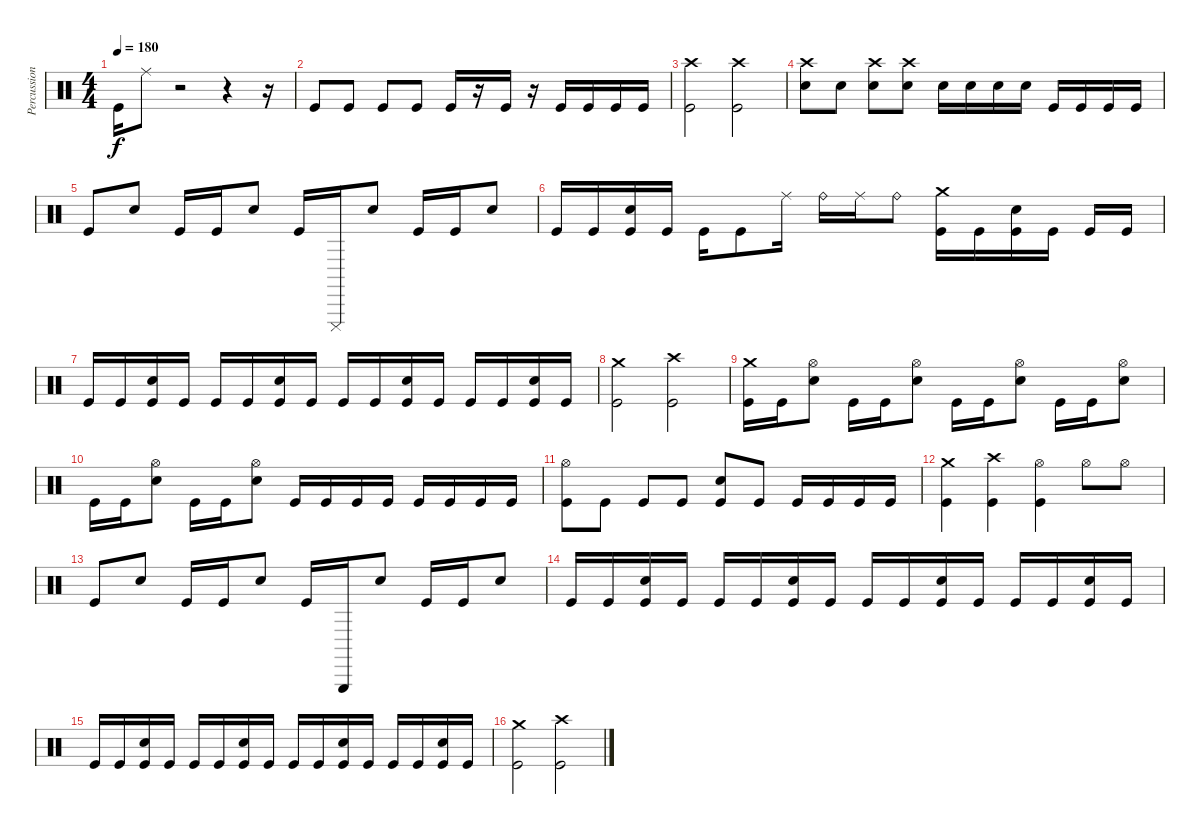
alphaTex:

\track ("Percussions" "Percussion") {instrument percussion}
\staff {score}
\articulation defaults
\ts (4 4)
\tempo 180
\clef neutral
\ks c "Kick (hit)".16{dy f} "Ride (middle)".8
r.2 r.4 r.16 |
"Kick (hit)".8 "Kick (hit)".8 "Kick (hit)".8 "Kick (hit)".8 "Kick (hit)".16 r.16 "Kick (hit)".16 r.16 "Kick (hit)".16 "Kick (hit)".16 "Kick (hit)".16 "Kick (hit)".16 |
("Crash high (hit)" "Kick (hit)").2 ("Crash high (hit)" "Kick (hit)").2 |
("Crash high (hit)" "Snare (hit) 2").8 "Snare (hit) 2".8 ("Crash high (hit)" "Snare (hit) 2").8 ("Crash high (hit)" "Snare (hit) 2").8 "Snare (hit) 2".16 "Snare (hit) 2".16 "Snare (hit) 2".16 "Snare (hit) 2".16 "Kick (hit)".16 "Kick (hit)".16 "Kick (hit)".16 "Kick (hit)".16 |
"Kick (hit)".8 "Snare (hit) 2".8 "Kick (hit)".16 "Kick (hit)".16 "Snare (hit) 2".8 "Kick (hit)".16 "Cuica (mute)".16 "Snare (hit) 2".8 "Kick (hit)".16 "Kick (hit)".16 "Snare (hit) 2".8 |
"Kick (hit)".16 "Kick (hit)".16 ("Snare (hit) 2" "Kick (hit)").16 "Kick (hit)".16 "Kick (hit)".16 "Kick (hit)".8 "Ride (middle)".16 "Ride (bell)".16 "Ride (middle)".16 "Ride (bell)".8 ("Crash medium (hit)" "Kick (hit)").16 "Kick (hit)".16 ("Snare (hit) 2" "Kick (hit)").16 "Kick (hit)".16 "Kick (hit)".16 "Kick (hit)".16 |
"Kick (hit)".16 "Kick (hit)".16 ("Snare (hit) 2" "Kick (hit)").16 "Kick (hit)".16 "Kick (hit)".16 "Kick (hit)".16 ("Snare (hit) 2" "Kick (hit)").16 "Kick (hit)".16 "Kick (hit)".16 "Kick (hit)".16 ("Snare (hit) 2" "Kick (hit)").16 "Kick (hit)".16 "Kick (hit)".16 "Kick (hit)".16 ("Snare (hit) 2" "Kick (hit)").16 "Kick (hit)".16 |
("Crash medium (hit)" "Kick (hit)").2 ("Crash high (hit)" "Kick (hit)").2 |
("Crash medium (hit)" "Kick (hit)").16 "Kick (hit)".16 ("Hi-Hat (open)" "Snare (hit) 2").8 "Kick (hit)".16 "Kick (hit)".16 ("Hi-Hat (open)" "Snare (hit) 2").8 "Kick (hit)".16 "Kick (hit)".16 ("Hi-Hat (open)" "Snare (hit) 2").8 "Kick (hit)".16 "Kick (hit)".16 ("Hi-Hat (open)" "Snare (hit) 2").8 |
"Kick (hit)".16 "Kick (hit)".16 ("Hi-Hat (open)" "Snare (hit) 2").8 "Kick (hit)".16 "Kick (hit)".16 ("Hi-Hat (open)" "Snare (hit) 2").8 "Kick (hit)".16 "Kick (hit)".16 "Kick (hit)".16 "Kick (hit)".16 "Kick (hit)".16 "Kick (hit)".16 "Kick (hit)".16 "Kick (hit)".16 |
("Hi-Hat (open)" "Kick (hit)").8 "Kick (hit)".8 "Kick (hit)".8 "Kick (hit)".8 ("Snare (hit) 2" "Kick (hit)").8 "Kick (hit)".8 "Kick (hit)".16 "Kick (hit)".16 "Kick (hit)".16 "Kick (hit)".16 |
("Crash medium (hit)" "Kick (hit)").4 ("Crash high (hit)" "Kick (hit)").4 ("Hi-Hat (open)" "Kick (hit)").4 "Hi-Hat (open)".8 "Hi-Hat (open)".8 |
"Kick (hit)".8 "Snare (hit) 2".8 "Kick (hit)".16 "Kick (hit)".16 "Snare (hit) 2".8 "Kick (hit)".16 "Triangle (hit)".16 "Snare (hit) 2".8 "Kick (hit)".16 "Kick (hit)".16 "Snare (hit) 2".8 |
"Kick (hit)".16 "Kick (hit)".16 ("Snare (hit) 2" "Kick (hit)").16 "Kick (hit)".16 "Kick (hit)".16 "Kick (hit)".16 ("Snare (hit) 2" "Kick (hit)").16 "Kick (hit)".16 "Kick (hit)".16 "Kick (hit)".16 ("Snare (hit) 2" "Kick (hit)").16 "Kick (hit)".16 "Kick (hit)".16 "Kick (hit)".16 ("Snare (hit) 2" "Kick (hit)").16 "Kick (hit)".16 |
"Kick (hit)".16 "Kick (hit)".16 ("Snare (hit) 2" "Kick (hit)").16 "Kick (hit)".16 "Kick (hit)".16 "Kick (hit)".16 ("Snare (hit) 2" "Kick (hit)").16 "Kick (hit)".16 "Kick (hit)".16 "Kick (hit)".16 ("Snare (hit) 2" "Kick (hit)").16 "Kick (hit)".16 "Kick (hit)".16 "Kick (hit)".16 ("Snare (hit) 2" "Kick (hit)").16 "Kick (hit)".16 |
("Crash medium (hit)" "Kick (hit)").2 ("Crash high (hit)" "Kick (hit)").2
